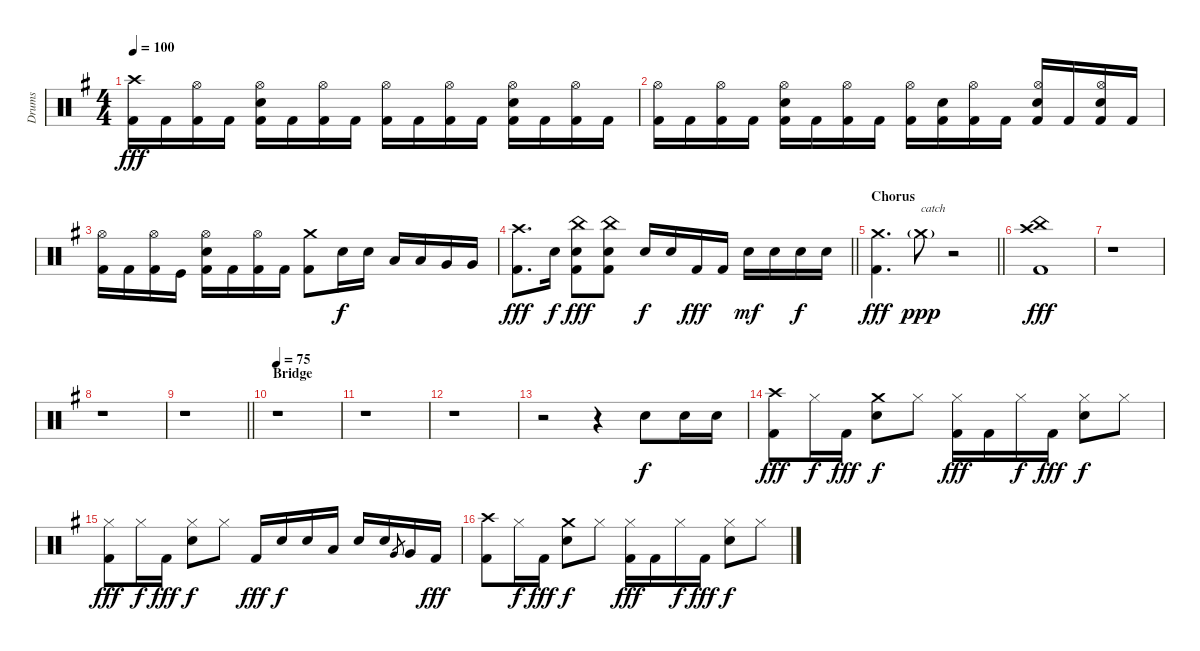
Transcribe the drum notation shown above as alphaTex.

\track ("Drums" "Drums") {instrument percussion}
\staff {score}
\articulation defaults
\ts (4 4)
\tempo 100
\clef neutral
\ks eminor
("Crash high (hit)" "Kick (hit) 2").16{dy fff} "Kick (hit) 2".16 ("Hi-Hat (open)" "Kick (hit) 2").16 "Kick (hit) 2".16 ("Hi-Hat (open)" "Snare (hit) 2" "Kick (hit) 2").16 "Kick (hit) 2".16 ("Hi-Hat (open)" "Kick (hit) 2").16 "Kick (hit) 2".16 ("Hi-Hat (open)" "Kick (hit) 2").16 "Kick (hit) 2".16 ("Hi-Hat (open)" "Kick (hit) 2").16 "Kick (hit) 2".16 ("Hi-Hat (open)" "Snare (hit) 2" "Kick (hit) 2").16 "Kick (hit) 2".16 ("Hi-Hat (open)" "Kick (hit) 2").16 "Kick (hit) 2".16 |
("Hi-Hat (open)" "Kick (hit) 2").16 "Kick (hit) 2".16 ("Hi-Hat (open)" "Kick (hit) 2").16 "Kick (hit) 2".16 ("Hi-Hat (open)" "Snare (hit) 2" "Kick (hit) 2").16 "Kick (hit) 2".16 ("Hi-Hat (open)" "Kick (hit) 2").16 "Kick (hit) 2".16 ("Hi-Hat (open)" "Kick (hit) 2").16 ("Snare (hit) 2" "Kick (hit) 2").16 ("Hi-Hat (open)" "Kick (hit) 2").16 "Kick (hit) 2".16 ("Hi-Hat (open)" "Snare (hit) 2" "Kick (hit) 2").16 "Kick (hit) 2".16 ("Hi-Hat (open)" "Snare (hit) 2" "Kick (hit) 2").16 "Kick (hit) 2".16 |
("Hi-Hat (open)" "Kick (hit) 2").16 "Kick (hit) 2".16 ("Hi-Hat (open)" "Kick (hit) 2").16 "Kick (hit)".16 ("Hi-Hat (open)" "Snare (hit) 2" "Kick (hit) 2").16 "Kick (hit) 2".16 ("Hi-Hat (open)" "Kick (hit) 2").16 "Kick (hit) 2".16 ("Crash medium (hit)" "Kick (hit) 2").8 "Snare (hit) 2".16{dy f} "Snare (hit) 2".16 "Low Tom (hit)".16 "Low Tom (hit)".16 "Very Low Tom (hit)".16 "Very Low Tom (hit)".16 |
\barLineRight lightlight
("Crash high (hit)" "Kick (hit) 2").8{d dy fff} "Snare (hit) 2".16{dy f} ("China (hit)" "Snare (hit) 2" "Kick (hit) 2").8{dy fff} ("China (hit)" "Snare (hit) 2" "Kick (hit) 2").8 "Snare (hit) 2".16{dy f} "Snare (hit) 2".16 "Kick (hit) 2".16{dy fff} "Kick (hit) 2".16 "Snare (hit) 2".16{dy mf} "Snare (hit) 2".16 "Snare (hit) 2".16{dy f} "Snare (hit) 2".16 |
\section ("" "Chorus")
\barLineRight lightlight
("Crash medium (hit)" "Kick (hit) 2").4{d dy fff} "Crash medium (hit)"{g}.8{txt "catch" dy ppp} r.2 |
("Crash high (hit)" "China (hit)" "Kick (hit) 2").1{dy fff} |
r.1 |
r.1 |
\barLineRight lightlight
r.1 |
\section ("" "Bridge")
\tempo 75
r.1 |
r.1 |
r.1 |
r.2 r.4 "Snare (hit) 2".8{dy f} "Snare (hit) 2".16 "Snare (hit) 2".16 |
("Crash high (hit)" "Kick (hit) 2").8{dy fff} "Hi-Hat (closed)".16{dy f} "Kick (hit) 2".16{dy fff} ("Crash medium (hit)" "Snare (hit) 2").8{dy f} "Hi-Hat (closed)".8 ("Hi-Hat (closed)" "Kick (hit) 2").16{dy fff} "Kick (hit) 2".16 "Hi-Hat (closed)".16{dy f} "Kick (hit) 2".16{dy fff} ("Hi-Hat (closed)" "Snare (hit) 2").8{dy f} "Hi-Hat (closed)".8 |
("Hi-Hat (closed)" "Kick (hit) 2").8{dy fff} "Hi-Hat (closed)".16{dy f} "Kick (hit) 2".16{dy fff} ("Hi-Hat (closed)" "Snare (hit) 2").8{dy f} "Hi-Hat (closed)".8 "Kick (hit) 2".16{dy fff} "Snare (hit) 2".16{dy f} "Snare (hit) 2".16 "Low Tom (hit)".16 "Snare (hit) 2".16 "Snare (hit) 2".16 "Very Low Tom (hit)".8{gr} "Very Low Tom (hit)".16 "Kick (hit) 2".16{dy fff} |
("Crash high (hit)" "Kick (hit) 2").8 "Hi-Hat (closed)".16{dy f} "Kick (hit) 2".16{dy fff} ("Crash medium (hit)" "Snare (hit) 2").8{dy f} "Hi-Hat (closed)".8 ("Hi-Hat (closed)" "Kick (hit) 2").16{dy fff} "Kick (hit) 2".16 "Hi-Hat (closed)".16{dy f} "Kick (hit) 2".16{dy fff} ("Hi-Hat (closed)" "Snare (hit) 2").8{dy f} "Hi-Hat (closed)".8
